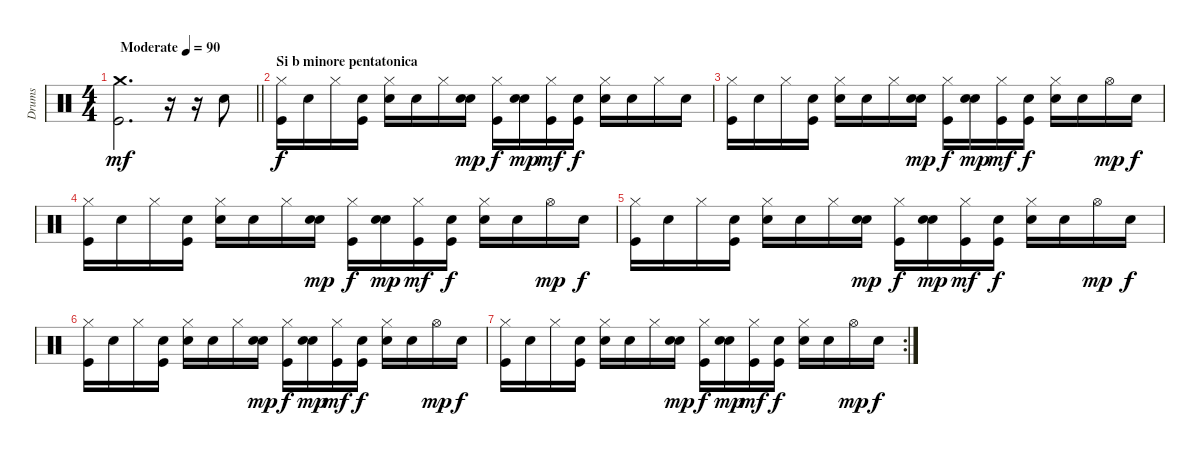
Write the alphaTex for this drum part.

\track ("Drums" "Drums") {instrument percussion}
\staff {score}
\articulation defaults
\ts (4 4)
\tempo (90 "Moderate")
\clef neutral
\barLineRight lightlight
\ks c
("Crash medium (hit)" "Kick (hit)").2{d dy mf} r.16 r.16 "Electric Snare (hit)".8 |
\section ("" "Si b minore pentatonica")
("Hi-Hat (closed)" "Kick (hit)").16{dy f} "Snare (hit)".16 "Hi-Hat (closed)".16 ("Snare (hit)" "Kick (hit)").16 ("Hi-Hat (closed)" "Electric Snare (hit)").16 "Snare (hit)".16 "Hi-Hat (closed)".16 ("Snare (hit)" "Electric Snare (hit)").16{dy mp} ("Hi-Hat (closed)" "Kick (hit)").16{dy f} ("Snare (hit)" "Electric Snare (hit)").16{dy mp} ("Hi-Hat (closed)" "Kick (hit)").16{dy mf} ("Snare (hit)" "Kick (hit)").16{dy f} ("Hi-Hat (closed)" "Electric Snare (hit)").16 "Snare (hit)".16 "Hi-Hat (closed)".16 "Snare (hit)".16 |
("Hi-Hat (closed)" "Kick (hit)").16 "Snare (hit)".16 "Hi-Hat (closed)".16 ("Snare (hit)" "Kick (hit)").16 ("Hi-Hat (closed)" "Electric Snare (hit)").16 "Snare (hit)".16 "Hi-Hat (closed)".16 ("Snare (hit)" "Electric Snare (hit)").16{dy mp} ("Hi-Hat (closed)" "Kick (hit)").16{dy f} ("Snare (hit)" "Electric Snare (hit)").16{dy mp} ("Hi-Hat (closed)" "Kick (hit)").16{dy mf} ("Snare (hit)" "Kick (hit)").16{dy f} ("Hi-Hat (closed)" "Electric Snare (hit)").16 "Snare (hit)".16 "Hi-Hat (open)".16{dy mp} "Snare (hit)".16{dy f} |
("Hi-Hat (closed)" "Kick (hit)").16 "Snare (hit)".16 "Hi-Hat (closed)".16 ("Snare (hit)" "Kick (hit)").16 ("Hi-Hat (closed)" "Electric Snare (hit)").16 "Snare (hit)".16 "Hi-Hat (closed)".16 ("Snare (hit)" "Electric Snare (hit)").16{dy mp} ("Hi-Hat (closed)" "Kick (hit)").16{dy f} ("Snare (hit)" "Electric Snare (hit)").16{dy mp} ("Hi-Hat (closed)" "Kick (hit)").16{dy mf} ("Snare (hit)" "Kick (hit)").16{dy f} ("Hi-Hat (closed)" "Electric Snare (hit)").16 "Snare (hit)".16 "Hi-Hat (open)".16{dy mp} "Snare (hit)".16{dy f} |
("Hi-Hat (closed)" "Kick (hit)").16 "Snare (hit)".16 "Hi-Hat (closed)".16 ("Snare (hit)" "Kick (hit)").16 ("Hi-Hat (closed)" "Electric Snare (hit)").16 "Snare (hit)".16 "Hi-Hat (closed)".16 ("Snare (hit)" "Electric Snare (hit)").16{dy mp} ("Hi-Hat (closed)" "Kick (hit)").16{dy f} ("Snare (hit)" "Electric Snare (hit)").16{dy mp} ("Hi-Hat (closed)" "Kick (hit)").16{dy mf} ("Snare (hit)" "Kick (hit)").16{dy f} ("Hi-Hat (closed)" "Electric Snare (hit)").16 "Snare (hit)".16 "Hi-Hat (open)".16{dy mp} "Snare (hit)".16{dy f} |
("Hi-Hat (closed)" "Kick (hit)").16 "Snare (hit)".16 "Hi-Hat (closed)".16 ("Snare (hit)" "Kick (hit)").16 ("Hi-Hat (closed)" "Electric Snare (hit)").16 "Snare (hit)".16 "Hi-Hat (closed)".16 ("Snare (hit)" "Electric Snare (hit)").16{dy mp} ("Hi-Hat (closed)" "Kick (hit)").16{dy f} ("Snare (hit)" "Electric Snare (hit)").16{dy mp} ("Hi-Hat (closed)" "Kick (hit)").16{dy mf} ("Snare (hit)" "Kick (hit)").16{dy f} ("Hi-Hat (closed)" "Electric Snare (hit)").16 "Snare (hit)".16 "Hi-Hat (open)".16{dy mp} "Snare (hit)".16{dy f} |
\rc 2
("Hi-Hat (closed)" "Kick (hit)").16 "Snare (hit)".16 "Hi-Hat (closed)".16 ("Snare (hit)" "Kick (hit)").16 ("Hi-Hat (closed)" "Electric Snare (hit)").16 "Snare (hit)".16 "Hi-Hat (closed)".16 ("Snare (hit)" "Electric Snare (hit)").16{dy mp} ("Hi-Hat (closed)" "Kick (hit)").16{dy f} ("Snare (hit)" "Electric Snare (hit)").16{dy mp} ("Hi-Hat (closed)" "Kick (hit)").16{dy mf} ("Snare (hit)" "Kick (hit)").16{dy f} ("Hi-Hat (closed)" "Electric Snare (hit)").16 "Snare (hit)".16 "Hi-Hat (open)".16{dy mp} "Snare (hit)".16{dy f}
